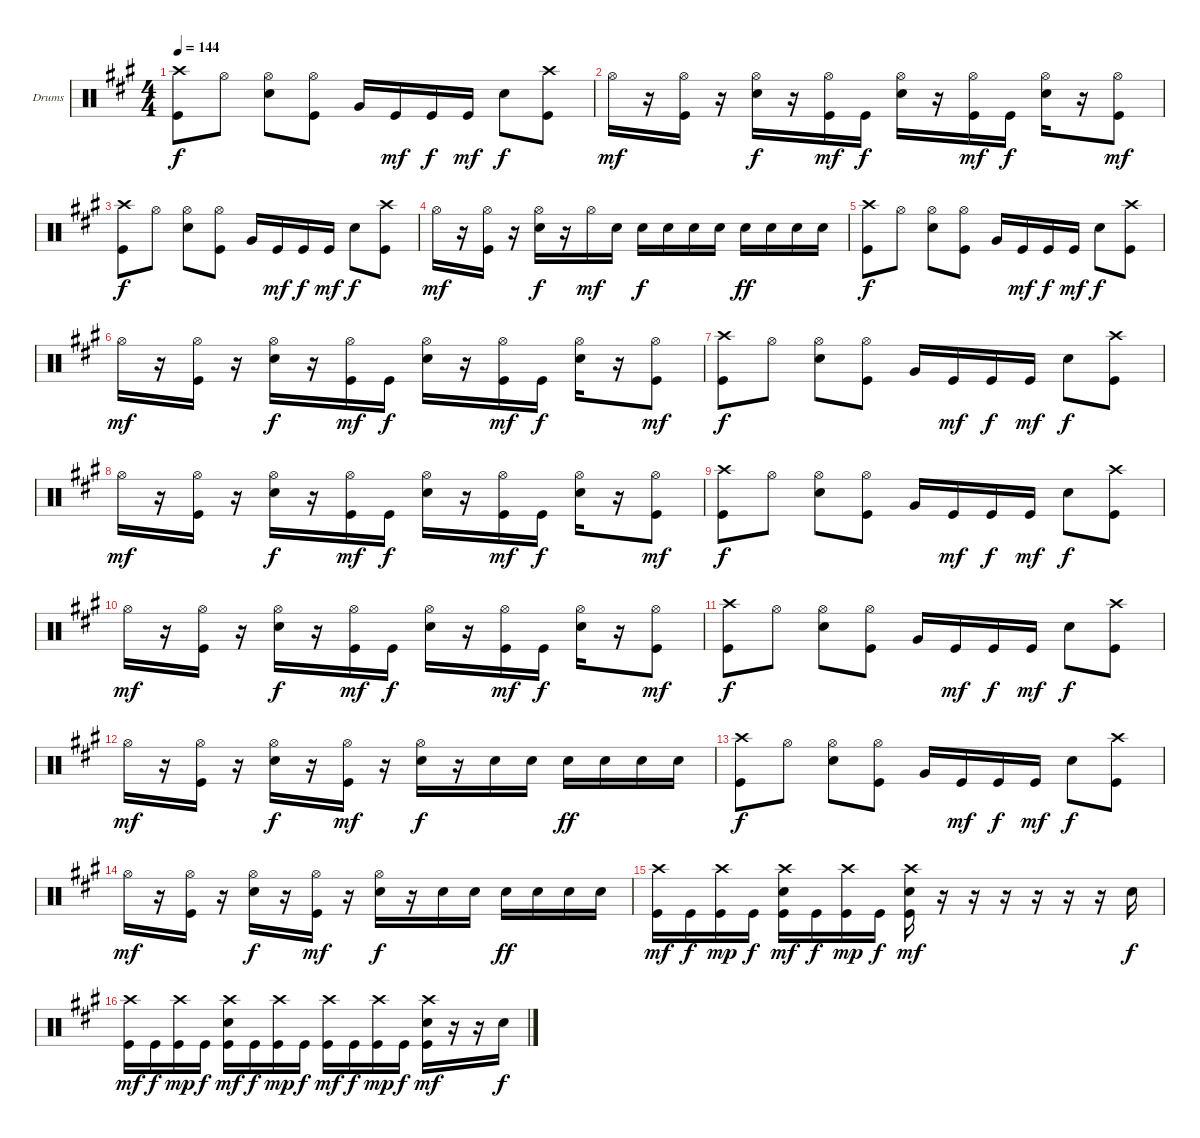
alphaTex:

\defaultSystemsLayout 4
\bracketExtendMode groupsimilarinstruments
\firstSystemTrackNameOrientation horizontal
\otherSystemsTrackNameOrientation horizontal
\track ("Drumkit" "Drums") {instrument percussion}
\staff {score}
\articulation defaults
\ts (4 4)
\tempo 144
\clef neutral
\scale
1.05801
\ks a
("Crash high (hit)" "Kick (hit)").8{dy f} "Hi-Hat (open)".8 ("Hi-Hat (open)" "Snare (hit) 2").8 ("Hi-Hat (open)" "Kick (hit)").8 "Very Low Tom (hit)".16 "Kick (hit)".16{dy mf} "Kick (hit)".16{dy f} "Kick (hit)".16{dy mf} "Snare (hit) 2".8{dy f} ("Crash high (hit)" "Kick (hit)").8 |
\scale
0.941992 "Hi-Hat (open)".16{dy mf} r.16 ("Hi-Hat (open)" "Kick (hit)").16 r.16 ("Hi-Hat (open)" "Snare (hit) 2").16{dy f} r.16 ("Hi-Hat (open)" "Kick (hit)").16{dy mf} "Kick (hit)".16{dy f} ("Hi-Hat (open)" "Snare (hit) 2").16 r.16 ("Hi-Hat (open)" "Kick (hit)").16{dy mf} "Kick (hit)".16{dy f} ("Hi-Hat (open)" "Snare (hit) 2").16 r.16 ("Hi-Hat (open)" "Kick (hit)").8{dy mf} |
\scale
1.05801 ("Crash high (hit)" "Kick (hit)").8{dy f} "Hi-Hat (open)".8 ("Hi-Hat (open)" "Snare (hit) 2").8 ("Hi-Hat (open)" "Kick (hit)").8 "Very Low Tom (hit)".16 "Kick (hit)".16{dy mf} "Kick (hit)".16{dy f} "Kick (hit)".16{dy mf} "Snare (hit) 2".8{dy f} ("Crash high (hit)" "Kick (hit)").8 |
\scale
0.941992 "Hi-Hat (open)".16{dy mf} r.16 ("Hi-Hat (open)" "Kick (hit)").16 r.16 ("Hi-Hat (open)" "Snare (hit) 2").16{dy f} r.16 "Hi-Hat (open)".16{dy mf} "Snare (hit) 2".16 "Snare (hit) 2".16{dy f} "Snare (hit) 2".16 "Snare (hit) 2".16 "Snare (hit) 2".16 "Snare (hit) 2".16{dy ff} "Snare (hit) 2".16 "Snare (hit) 2".16 "Snare (hit) 2".16 |
\scale
1.05801 ("Crash high (hit)" "Kick (hit)").8{dy f} "Hi-Hat (open)".8 ("Hi-Hat (open)" "Snare (hit) 2").8 ("Hi-Hat (open)" "Kick (hit)").8 "Very Low Tom (hit)".16 "Kick (hit)".16{dy mf} "Kick (hit)".16{dy f} "Kick (hit)".16{dy mf} "Snare (hit) 2".8{dy f} ("Crash high (hit)" "Kick (hit)").8 |
\scale
0.941992 "Hi-Hat (open)".16{dy mf} r.16 ("Hi-Hat (open)" "Kick (hit)").16 r.16 ("Hi-Hat (open)" "Snare (hit) 2").16{dy f} r.16 ("Hi-Hat (open)" "Kick (hit)").16{dy mf} "Kick (hit)".16{dy f} ("Hi-Hat (open)" "Snare (hit) 2").16 r.16 ("Hi-Hat (open)" "Kick (hit)").16{dy mf} "Kick (hit)".16{dy f} ("Hi-Hat (open)" "Snare (hit) 2").16 r.16 ("Hi-Hat (open)" "Kick (hit)").8{dy mf} |
\scale
1.05801 ("Crash high (hit)" "Kick (hit)").8{dy f} "Hi-Hat (open)".8 ("Hi-Hat (open)" "Snare (hit) 2").8 ("Hi-Hat (open)" "Kick (hit)").8 "Very Low Tom (hit)".16 "Kick (hit)".16{dy mf} "Kick (hit)".16{dy f} "Kick (hit)".16{dy mf} "Snare (hit) 2".8{dy f} ("Crash high (hit)" "Kick (hit)").8 |
\scale
0.941992 "Hi-Hat (open)".16{dy mf} r.16 ("Hi-Hat (open)" "Kick (hit)").16 r.16 ("Hi-Hat (open)" "Snare (hit) 2").16{dy f} r.16 ("Hi-Hat (open)" "Kick (hit)").16{dy mf} "Kick (hit)".16{dy f} ("Hi-Hat (open)" "Snare (hit) 2").16 r.16 ("Hi-Hat (open)" "Kick (hit)").16{dy mf} "Kick (hit)".16{dy f} ("Hi-Hat (open)" "Snare (hit) 2").16 r.16 ("Hi-Hat (open)" "Kick (hit)").8{dy mf} |
\scale
1.05801 ("Crash high (hit)" "Kick (hit)").8{dy f} "Hi-Hat (open)".8 ("Hi-Hat (open)" "Snare (hit) 2").8 ("Hi-Hat (open)" "Kick (hit)").8 "Very Low Tom (hit)".16 "Kick (hit)".16{dy mf} "Kick (hit)".16{dy f} "Kick (hit)".16{dy mf} "Snare (hit) 2".8{dy f} ("Crash high (hit)" "Kick (hit)").8 |
\scale
0.941992 "Hi-Hat (open)".16{dy mf} r.16 ("Hi-Hat (open)" "Kick (hit)").16 r.16 ("Hi-Hat (open)" "Snare (hit) 2").16{dy f} r.16 ("Hi-Hat (open)" "Kick (hit)").16{dy mf} "Kick (hit)".16{dy f} ("Hi-Hat (open)" "Snare (hit) 2").16 r.16 ("Hi-Hat (open)" "Kick (hit)").16{dy mf} "Kick (hit)".16{dy f} ("Hi-Hat (open)" "Snare (hit) 2").16 r.16 ("Hi-Hat (open)" "Kick (hit)").8{dy mf} |
\scale
1.05801 ("Crash high (hit)" "Kick (hit)").8{dy f} "Hi-Hat (open)".8 ("Hi-Hat (open)" "Snare (hit) 2").8 ("Hi-Hat (open)" "Kick (hit)").8 "Very Low Tom (hit)".16 "Kick (hit)".16{dy mf} "Kick (hit)".16{dy f} "Kick (hit)".16{dy mf} "Snare (hit) 2".8{dy f} ("Crash high (hit)" "Kick (hit)").8 |
\scale
0.941992 "Hi-Hat (open)".16{dy mf} r.16 ("Hi-Hat (open)" "Kick (hit)").16 r.16 ("Hi-Hat (open)" "Snare (hit) 2").16{dy f} r.16 ("Hi-Hat (open)" "Kick (hit)").16{dy mf} r.16 ("Hi-Hat (open)" "Snare (hit) 2").16{dy f} r.16 "Snare (hit) 2".16 "Snare (hit) 2".16 "Snare (hit) 2".16{dy ff} "Snare (hit) 2".16 "Snare (hit) 2".16 "Snare (hit) 2".16 |
\scale
1.05801 ("Crash high (hit)" "Kick (hit)").8{dy f} "Hi-Hat (open)".8 ("Hi-Hat (open)" "Snare (hit) 2").8 ("Hi-Hat (open)" "Kick (hit)").8 "Very Low Tom (hit)".16 "Kick (hit)".16{dy mf} "Kick (hit)".16{dy f} "Kick (hit)".16{dy mf} "Snare (hit) 2".8{dy f} ("Crash high (hit)" "Kick (hit)").8 |
\scale
0.941992 "Hi-Hat (open)".16{dy mf} r.16 ("Hi-Hat (open)" "Kick (hit)").16 r.16 ("Hi-Hat (open)" "Snare (hit) 2").16{dy f} r.16 ("Hi-Hat (open)" "Kick (hit)").16{dy mf} r.16 ("Hi-Hat (open)" "Snare (hit) 2").16{dy f} r.16 "Snare (hit) 2".16 "Snare (hit) 2".16 "Snare (hit) 2".16{dy ff} "Snare (hit) 2".16 "Snare (hit) 2".16 "Snare (hit) 2".16 |
\scale
1.05801 ("Crash high (hit)" "Kick (hit)").16{dy mf} "Kick (hit)".16{dy f} ("Crash high (hit)" "Kick (hit)").16{dy mp} "Kick (hit)".16{dy f} ("Crash high (hit)" "Snare (hit) 2" "Kick (hit)").16{dy mf} "Kick (hit)".16{dy f} ("Crash high (hit)" "Kick (hit)").16{dy mp} "Kick (hit)".16{dy f} ("Crash high (hit)" "Snare (hit) 2" "Kick (hit)").16{dy mf} r.16 r.16 r.16 r.16 r.16 r.16 "Snare (hit) 2".16{dy f} |
\scale
0.941992 ("Crash high (hit)" "Kick (hit)").16{dy mf} "Kick (hit)".16{dy f} ("Crash high (hit)" "Kick (hit)").16{dy mp} "Kick (hit)".16{dy f} ("Crash high (hit)" "Snare (hit) 2" "Kick (hit)").16{dy mf} "Kick (hit)".16{dy f} ("Crash high (hit)" "Kick (hit)").16{dy mp} "Kick (hit)".16{dy f} ("Crash high (hit)" "Kick (hit)").16{dy mf} "Kick (hit)".16{dy f} ("Crash high (hit)" "Kick (hit)").16{dy mp} "Kick (hit)".16{dy f} ("Crash high (hit)" "Snare (hit) 2" "Kick (hit)").16{dy mf} r.16 r.16 "Snare (hit) 2".16{dy f}
